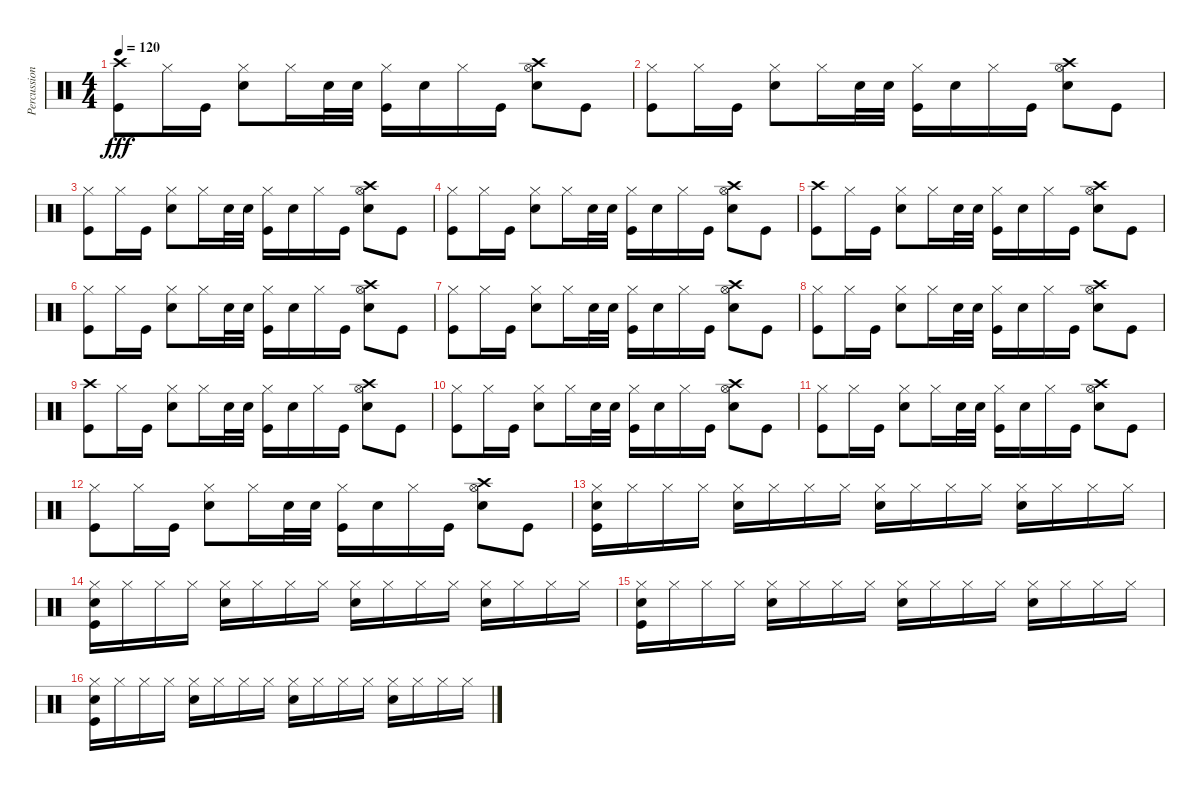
\track ("Percussion" "Percussion") {instrument percussion}
\staff {score}
\articulation defaults
\ts (4 4)
\tempo 120
\clef neutral
\ks c
("Crash high (hit)" "Kick (hit)").8{dy fff} "Hi-Hat (closed)".16 "Kick (hit)".16 ("Snare (hit) 2" "Hi-Hat (closed)").8 "Hi-Hat (closed)".16 "Snare (hit) 2".32 "Snare (hit) 2".32 ("Hi-Hat (closed)" "Kick (hit)").16 "Snare (hit) 2".16 "Hi-Hat (closed)".16 "Kick (hit)".16 ("Snare (hit) 2" "Hi-Hat (open)" "Crash high (hit)").8 "Kick (hit)".8 |
("Hi-Hat (closed)" "Kick (hit)").8 "Hi-Hat (closed)".16 "Kick (hit)".16 ("Snare (hit) 2" "Hi-Hat (closed)").8 "Hi-Hat (closed)".16 "Snare (hit) 2".32 "Snare (hit) 2".32 ("Hi-Hat (closed)" "Kick (hit)").16 "Snare (hit) 2".16 "Hi-Hat (closed)".16 "Kick (hit)".16 ("Snare (hit) 2" "Hi-Hat (open)" "Crash high (hit)").8 "Kick (hit)".8 |
("Hi-Hat (closed)" "Kick (hit)").8 "Hi-Hat (closed)".16 "Kick (hit)".16 ("Snare (hit) 2" "Hi-Hat (closed)").8 "Hi-Hat (closed)".16 "Snare (hit) 2".32 "Snare (hit) 2".32 ("Hi-Hat (closed)" "Kick (hit)").16 "Snare (hit) 2".16 "Hi-Hat (closed)".16 "Kick (hit)".16 ("Snare (hit) 2" "Hi-Hat (open)" "Crash high (hit)").8 "Kick (hit)".8 |
("Hi-Hat (closed)" "Kick (hit)").8 "Hi-Hat (closed)".16 "Kick (hit)".16 ("Snare (hit) 2" "Hi-Hat (closed)").8 "Hi-Hat (closed)".16 "Snare (hit) 2".32 "Snare (hit) 2".32 ("Hi-Hat (closed)" "Kick (hit)").16 "Snare (hit) 2".16 "Hi-Hat (closed)".16 "Kick (hit)".16 ("Snare (hit) 2" "Hi-Hat (open)" "Crash high (hit)").8 "Kick (hit)".8 |
("Crash high (hit)" "Kick (hit)").8 "Hi-Hat (closed)".16 "Kick (hit)".16 ("Snare (hit) 2" "Hi-Hat (closed)").8 "Hi-Hat (closed)".16 "Snare (hit) 2".32 "Snare (hit) 2".32 ("Hi-Hat (closed)" "Kick (hit)").16 "Snare (hit) 2".16 "Hi-Hat (closed)".16 "Kick (hit)".16 ("Snare (hit) 2" "Hi-Hat (open)" "Crash high (hit)").8 "Kick (hit)".8 |
("Hi-Hat (closed)" "Kick (hit)").8 "Hi-Hat (closed)".16 "Kick (hit)".16 ("Snare (hit) 2" "Hi-Hat (closed)").8 "Hi-Hat (closed)".16 "Snare (hit) 2".32 "Snare (hit) 2".32 ("Hi-Hat (closed)" "Kick (hit)").16 "Snare (hit) 2".16 "Hi-Hat (closed)".16 "Kick (hit)".16 ("Snare (hit) 2" "Hi-Hat (open)" "Crash high (hit)").8 "Kick (hit)".8 |
("Hi-Hat (closed)" "Kick (hit)").8 "Hi-Hat (closed)".16 "Kick (hit)".16 ("Snare (hit) 2" "Hi-Hat (closed)").8 "Hi-Hat (closed)".16 "Snare (hit) 2".32 "Snare (hit) 2".32 ("Hi-Hat (closed)" "Kick (hit)").16 "Snare (hit) 2".16 "Hi-Hat (closed)".16 "Kick (hit)".16 ("Snare (hit) 2" "Hi-Hat (open)" "Crash high (hit)").8 "Kick (hit)".8 |
("Hi-Hat (closed)" "Kick (hit)").8 "Hi-Hat (closed)".16 "Kick (hit)".16 ("Snare (hit) 2" "Hi-Hat (closed)").8 "Hi-Hat (closed)".16 "Snare (hit) 2".32 "Snare (hit) 2".32 ("Hi-Hat (closed)" "Kick (hit)").16 "Snare (hit) 2".16 "Hi-Hat (closed)".16 "Kick (hit)".16 ("Snare (hit) 2" "Hi-Hat (open)" "Crash high (hit)").8 "Kick (hit)".8 |
("Crash high (hit)" "Kick (hit)").8 "Hi-Hat (closed)".16 "Kick (hit)".16 ("Snare (hit) 2" "Hi-Hat (closed)").8 "Hi-Hat (closed)".16 "Snare (hit) 2".32 "Snare (hit) 2".32 ("Hi-Hat (closed)" "Kick (hit)").16 "Snare (hit) 2".16 "Hi-Hat (closed)".16 "Kick (hit)".16 ("Snare (hit) 2" "Hi-Hat (open)" "Crash high (hit)").8 "Kick (hit)".8 |
("Hi-Hat (closed)" "Kick (hit)").8 "Hi-Hat (closed)".16 "Kick (hit)".16 ("Snare (hit) 2" "Hi-Hat (closed)").8 "Hi-Hat (closed)".16 "Snare (hit) 2".32 "Snare (hit) 2".32 ("Hi-Hat (closed)" "Kick (hit)").16 "Snare (hit) 2".16 "Hi-Hat (closed)".16 "Kick (hit)".16 ("Snare (hit) 2" "Hi-Hat (open)" "Crash high (hit)").8 "Kick (hit)".8 |
("Hi-Hat (closed)" "Kick (hit)").8 "Hi-Hat (closed)".16 "Kick (hit)".16 ("Snare (hit) 2" "Hi-Hat (closed)").8 "Hi-Hat (closed)".16 "Snare (hit) 2".32 "Snare (hit) 2".32 ("Hi-Hat (closed)" "Kick (hit)").16 "Snare (hit) 2".16 "Hi-Hat (closed)".16 "Kick (hit)".16 ("Snare (hit) 2" "Hi-Hat (open)" "Crash high (hit)").8 "Kick (hit)".8 |
("Hi-Hat (closed)" "Kick (hit)").8 "Hi-Hat (closed)".16 "Kick (hit)".16 ("Snare (hit) 2" "Hi-Hat (closed)").8 "Hi-Hat (closed)".16 "Snare (hit) 2".32 "Snare (hit) 2".32 ("Hi-Hat (closed)" "Kick (hit)").16 "Snare (hit) 2".16 "Hi-Hat (closed)".16 "Kick (hit)".16 ("Snare (hit) 2" "Hi-Hat (open)" "Crash high (hit)").8 "Kick (hit)".8 |
("Hi-Hat (closed)" "Kick (hit)" "Hand Clap (hit)").16 "Hi-Hat (closed)".16 "Hi-Hat (closed)".16 "Hi-Hat (closed)".16 ("Hand Clap (hit)" "Hi-Hat (closed)").16 "Hi-Hat (closed)".16 "Hi-Hat (closed)".16 "Hi-Hat (closed)".16 ("Hand Clap (hit)" "Hi-Hat (closed)").16 "Hi-Hat (closed)".16 "Hi-Hat (closed)".16 "Hi-Hat (closed)".16 ("Hand Clap (hit)" "Hi-Hat (closed)").16 "Hi-Hat (closed)".16 "Hi-Hat (closed)".16 "Hi-Hat (closed)".16 |
("Hi-Hat (closed)" "Kick (hit)" "Hand Clap (hit)").16 "Hi-Hat (closed)".16 "Hi-Hat (closed)".16 "Hi-Hat (closed)".16 ("Hand Clap (hit)" "Hi-Hat (closed)").16 "Hi-Hat (closed)".16 "Hi-Hat (closed)".16 "Hi-Hat (closed)".16 ("Hand Clap (hit)" "Hi-Hat (closed)").16 "Hi-Hat (closed)".16 "Hi-Hat (closed)".16 "Hi-Hat (closed)".16 ("Hand Clap (hit)" "Hi-Hat (closed)").16 "Hi-Hat (closed)".16 "Hi-Hat (closed)".16 "Hi-Hat (closed)".16 |
("Hi-Hat (closed)" "Kick (hit)" "Hand Clap (hit)").16 "Hi-Hat (closed)".16 "Hi-Hat (closed)".16 "Hi-Hat (closed)".16 ("Hand Clap (hit)" "Hi-Hat (closed)").16 "Hi-Hat (closed)".16 "Hi-Hat (closed)".16 "Hi-Hat (closed)".16 ("Hand Clap (hit)" "Hi-Hat (closed)").16 "Hi-Hat (closed)".16 "Hi-Hat (closed)".16 "Hi-Hat (closed)".16 ("Hand Clap (hit)" "Hi-Hat (closed)").16 "Hi-Hat (closed)".16 "Hi-Hat (closed)".16 "Hi-Hat (closed)".16 |
("Hi-Hat (closed)" "Kick (hit)" "Hand Clap (hit)").16 "Hi-Hat (closed)".16 "Hi-Hat (closed)".16 "Hi-Hat (closed)".16 ("Hand Clap (hit)" "Hi-Hat (closed)").16 "Hi-Hat (closed)".16 "Hi-Hat (closed)".16 "Hi-Hat (closed)".16 ("Hand Clap (hit)" "Hi-Hat (closed)").16 "Hi-Hat (closed)".16 "Hi-Hat (closed)".16 "Hi-Hat (closed)".16 ("Hand Clap (hit)" "Hi-Hat (closed)").16 "Hi-Hat (closed)".16 "Hi-Hat (closed)".16 "Hi-Hat (closed)".16
